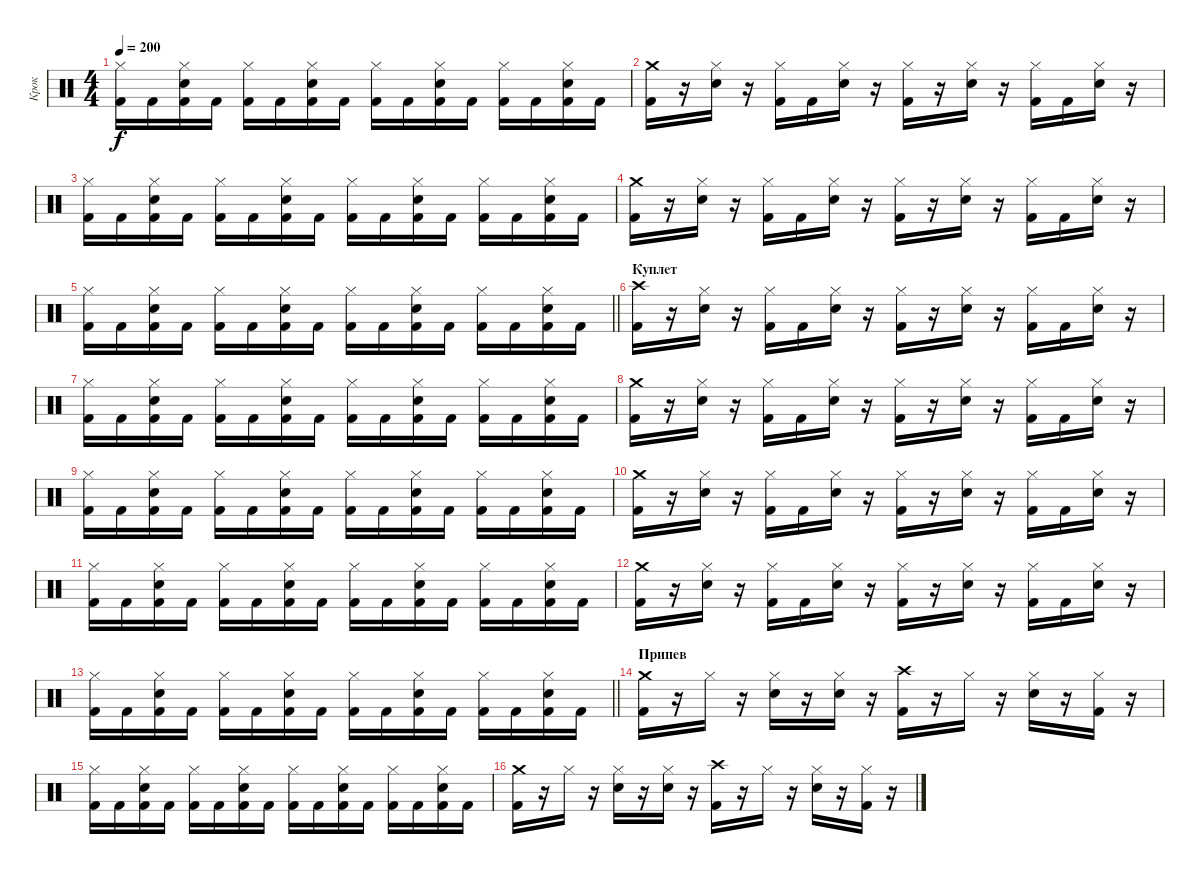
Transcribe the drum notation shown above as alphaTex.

\track ("Крок" "Крок") {instrument percussion}
\staff {score}
\articulation defaults
\ts (4 4)
\tempo 200
\clef neutral
\ks c
("Hi-Hat (closed)" "Kick (hit) 2").16{dy f} "Kick (hit) 2".16 ("Hi-Hat (closed)" "Electric Snare (hit)" "Kick (hit) 2").16 "Kick (hit) 2".16 ("Hi-Hat (closed)" "Kick (hit) 2").16 "Kick (hit) 2".16 ("Hi-Hat (closed)" "Electric Snare (hit)" "Kick (hit) 2").16 "Kick (hit) 2".16 ("Hi-Hat (closed)" "Kick (hit) 2").16 "Kick (hit) 2".16 ("Hi-Hat (closed)" "Electric Snare (hit)" "Kick (hit) 2").16 "Kick (hit) 2".16 ("Hi-Hat (closed)" "Kick (hit) 2").16 "Kick (hit) 2".16 ("Hi-Hat (closed)" "Electric Snare (hit)" "Kick (hit) 2").16 "Kick (hit) 2".16 |
("Crash medium (hit)" "Kick (hit) 2").16 r.16 ("Hi-Hat (closed)" "Electric Snare (hit)").16 r.16 ("Hi-Hat (closed)" "Kick (hit) 2").16 "Kick (hit) 2".16 ("Hi-Hat (closed)" "Electric Snare (hit)").16 r.16 ("Hi-Hat (closed)" "Kick (hit) 2").16 r.16 ("Hi-Hat (closed)" "Electric Snare (hit)").16 r.16 ("Hi-Hat (closed)" "Kick (hit) 2").16 "Kick (hit) 2".16 ("Hi-Hat (closed)" "Electric Snare (hit)").16 r.16 |
("Hi-Hat (closed)" "Kick (hit) 2").16 "Kick (hit) 2".16 ("Hi-Hat (closed)" "Electric Snare (hit)" "Kick (hit) 2").16 "Kick (hit) 2".16 ("Hi-Hat (closed)" "Kick (hit) 2").16 "Kick (hit) 2".16 ("Hi-Hat (closed)" "Electric Snare (hit)" "Kick (hit) 2").16 "Kick (hit) 2".16 ("Hi-Hat (closed)" "Kick (hit) 2").16 "Kick (hit) 2".16 ("Hi-Hat (closed)" "Electric Snare (hit)" "Kick (hit) 2").16 "Kick (hit) 2".16 ("Hi-Hat (closed)" "Kick (hit) 2").16 "Kick (hit) 2".16 ("Hi-Hat (closed)" "Electric Snare (hit)" "Kick (hit) 2").16 "Kick (hit) 2".16 |
("Crash medium (hit)" "Kick (hit) 2").16 r.16 ("Hi-Hat (closed)" "Electric Snare (hit)").16 r.16 ("Hi-Hat (closed)" "Kick (hit) 2").16 "Kick (hit) 2".16 ("Hi-Hat (closed)" "Electric Snare (hit)").16 r.16 ("Hi-Hat (closed)" "Kick (hit) 2").16 r.16 ("Hi-Hat (closed)" "Electric Snare (hit)").16 r.16 ("Hi-Hat (closed)" "Kick (hit) 2").16 "Kick (hit) 2".16 ("Hi-Hat (closed)" "Electric Snare (hit)").16 r.16 |
\barLineRight lightlight
("Hi-Hat (closed)" "Kick (hit) 2").16 "Kick (hit) 2".16 ("Hi-Hat (closed)" "Electric Snare (hit)" "Kick (hit) 2").16 "Kick (hit) 2".16 ("Hi-Hat (closed)" "Kick (hit) 2").16 "Kick (hit) 2".16 ("Hi-Hat (closed)" "Electric Snare (hit)" "Kick (hit) 2").16 "Kick (hit) 2".16 ("Hi-Hat (closed)" "Kick (hit) 2").16 "Kick (hit) 2".16 ("Hi-Hat (closed)" "Electric Snare (hit)" "Kick (hit) 2").16 "Kick (hit) 2".16 ("Hi-Hat (closed)" "Kick (hit) 2").16 "Kick (hit) 2".16 ("Hi-Hat (closed)" "Electric Snare (hit)" "Kick (hit) 2").16 "Kick (hit) 2".16 |
\section ("" "Куплет")
("Crash high (hit)" "Kick (hit) 2").16 r.16 ("Hi-Hat (closed)" "Electric Snare (hit)").16 r.16 ("Hi-Hat (closed)" "Kick (hit) 2").16 "Kick (hit) 2".16 ("Hi-Hat (closed)" "Electric Snare (hit)").16 r.16 ("Hi-Hat (closed)" "Kick (hit) 2").16 r.16 ("Hi-Hat (closed)" "Electric Snare (hit)").16 r.16 ("Hi-Hat (closed)" "Kick (hit) 2").16 "Kick (hit) 2".16 ("Hi-Hat (closed)" "Electric Snare (hit)").16 r.16 |
("Hi-Hat (closed)" "Kick (hit) 2").16 "Kick (hit) 2".16 ("Hi-Hat (closed)" "Electric Snare (hit)" "Kick (hit) 2").16 "Kick (hit) 2".16 ("Hi-Hat (closed)" "Kick (hit) 2").16 "Kick (hit) 2".16 ("Hi-Hat (closed)" "Electric Snare (hit)" "Kick (hit) 2").16 "Kick (hit) 2".16 ("Hi-Hat (closed)" "Kick (hit) 2").16 "Kick (hit) 2".16 ("Hi-Hat (closed)" "Electric Snare (hit)" "Kick (hit) 2").16 "Kick (hit) 2".16 ("Hi-Hat (closed)" "Kick (hit) 2").16 "Kick (hit) 2".16 ("Hi-Hat (closed)" "Electric Snare (hit)" "Kick (hit) 2").16 "Kick (hit) 2".16 |
("Crash medium (hit)" "Kick (hit) 2").16 r.16 ("Hi-Hat (closed)" "Electric Snare (hit)").16 r.16 ("Hi-Hat (closed)" "Kick (hit) 2").16 "Kick (hit) 2".16 ("Hi-Hat (closed)" "Electric Snare (hit)").16 r.16 ("Hi-Hat (closed)" "Kick (hit) 2").16 r.16 ("Hi-Hat (closed)" "Electric Snare (hit)").16 r.16 ("Hi-Hat (closed)" "Kick (hit) 2").16 "Kick (hit) 2".16 ("Hi-Hat (closed)" "Electric Snare (hit)").16 r.16 |
("Hi-Hat (closed)" "Kick (hit) 2").16 "Kick (hit) 2".16 ("Hi-Hat (closed)" "Electric Snare (hit)" "Kick (hit) 2").16 "Kick (hit) 2".16 ("Hi-Hat (closed)" "Kick (hit) 2").16 "Kick (hit) 2".16 ("Hi-Hat (closed)" "Electric Snare (hit)" "Kick (hit) 2").16 "Kick (hit) 2".16 ("Hi-Hat (closed)" "Kick (hit) 2").16 "Kick (hit) 2".16 ("Hi-Hat (closed)" "Electric Snare (hit)" "Kick (hit) 2").16 "Kick (hit) 2".16 ("Hi-Hat (closed)" "Kick (hit) 2").16 "Kick (hit) 2".16 ("Hi-Hat (closed)" "Electric Snare (hit)" "Kick (hit) 2").16 "Kick (hit) 2".16 |
("Crash medium (hit)" "Kick (hit) 2").16 r.16 ("Hi-Hat (closed)" "Electric Snare (hit)").16 r.16 ("Hi-Hat (closed)" "Kick (hit) 2").16 "Kick (hit) 2".16 ("Hi-Hat (closed)" "Electric Snare (hit)").16 r.16 ("Hi-Hat (closed)" "Kick (hit) 2").16 r.16 ("Hi-Hat (closed)" "Electric Snare (hit)").16 r.16 ("Hi-Hat (closed)" "Kick (hit) 2").16 "Kick (hit) 2".16 ("Hi-Hat (closed)" "Electric Snare (hit)").16 r.16 |
("Hi-Hat (closed)" "Kick (hit) 2").16 "Kick (hit) 2".16 ("Hi-Hat (closed)" "Electric Snare (hit)" "Kick (hit) 2").16 "Kick (hit) 2".16 ("Hi-Hat (closed)" "Kick (hit) 2").16 "Kick (hit) 2".16 ("Hi-Hat (closed)" "Electric Snare (hit)" "Kick (hit) 2").16 "Kick (hit) 2".16 ("Hi-Hat (closed)" "Kick (hit) 2").16 "Kick (hit) 2".16 ("Hi-Hat (closed)" "Electric Snare (hit)" "Kick (hit) 2").16 "Kick (hit) 2".16 ("Hi-Hat (closed)" "Kick (hit) 2").16 "Kick (hit) 2".16 ("Hi-Hat (closed)" "Electric Snare (hit)" "Kick (hit) 2").16 "Kick (hit) 2".16 |
("Crash medium (hit)" "Kick (hit) 2").16 r.16 ("Hi-Hat (closed)" "Electric Snare (hit)").16 r.16 ("Hi-Hat (closed)" "Kick (hit) 2").16 "Kick (hit) 2".16 ("Hi-Hat (closed)" "Electric Snare (hit)").16 r.16 ("Hi-Hat (closed)" "Kick (hit) 2").16 r.16 ("Hi-Hat (closed)" "Electric Snare (hit)").16 r.16 ("Hi-Hat (closed)" "Kick (hit) 2").16 "Kick (hit) 2".16 ("Hi-Hat (closed)" "Electric Snare (hit)").16 r.16 |
\barLineRight lightlight
("Hi-Hat (closed)" "Kick (hit) 2").16 "Kick (hit) 2".16 ("Hi-Hat (closed)" "Electric Snare (hit)" "Kick (hit) 2").16 "Kick (hit) 2".16 ("Hi-Hat (closed)" "Kick (hit) 2").16 "Kick (hit) 2".16 ("Hi-Hat (closed)" "Electric Snare (hit)" "Kick (hit) 2").16 "Kick (hit) 2".16 ("Hi-Hat (closed)" "Kick (hit) 2").16 "Kick (hit) 2".16 ("Hi-Hat (closed)" "Electric Snare (hit)" "Kick (hit) 2").16 "Kick (hit) 2".16 ("Hi-Hat (closed)" "Kick (hit) 2").16 "Kick (hit) 2".16 ("Hi-Hat (closed)" "Electric Snare (hit)" "Kick (hit) 2").16 "Kick (hit) 2".16 |
\section ("" "Припев")
("Kick (hit) 2" "Crash medium (hit)").16 r.16 "Hi-Hat (closed)".16 r.16 ("Electric Snare (hit)" "Hi-Hat (closed)").16 r.16 ("Electric Snare (hit)" "Hi-Hat (closed)").16 r.16 ("Kick (hit) 2" "Crash high (hit)").16 r.16 "Hi-Hat (closed)".16 r.16 ("Electric Snare (hit)" "Hi-Hat (closed)").16 r.16 ("Kick (hit) 2" "Hi-Hat (closed)").16 r.16 |
("Kick (hit) 2" "Hi-Hat (closed)").16 "Kick (hit) 2".16 ("Kick (hit) 2" "Electric Snare (hit)" "Hi-Hat (closed)").16 "Kick (hit) 2".16 ("Kick (hit) 2" "Hi-Hat (closed)").16 "Kick (hit) 2".16 ("Kick (hit) 2" "Electric Snare (hit)" "Hi-Hat (closed)").16 "Kick (hit) 2".16 ("Kick (hit) 2" "Hi-Hat (closed)").16 "Kick (hit) 2".16 ("Kick (hit) 2" "Electric Snare (hit)" "Hi-Hat (closed)").16 "Kick (hit) 2".16 ("Kick (hit) 2" "Hi-Hat (closed)").16 "Kick (hit) 2".16 ("Kick (hit) 2" "Electric Snare (hit)" "Hi-Hat (closed)").16 "Kick (hit) 2".16 |
("Kick (hit) 2" "Crash medium (hit)").16 r.16 "Hi-Hat (closed)".16 r.16 ("Electric Snare (hit)" "Hi-Hat (closed)").16 r.16 ("Electric Snare (hit)" "Hi-Hat (closed)").16 r.16 ("Kick (hit) 2" "Crash high (hit)").16 r.16 "Hi-Hat (closed)".16 r.16 ("Electric Snare (hit)" "Hi-Hat (closed)").16 r.16 ("Kick (hit) 2" "Hi-Hat (closed)").16 r.16
